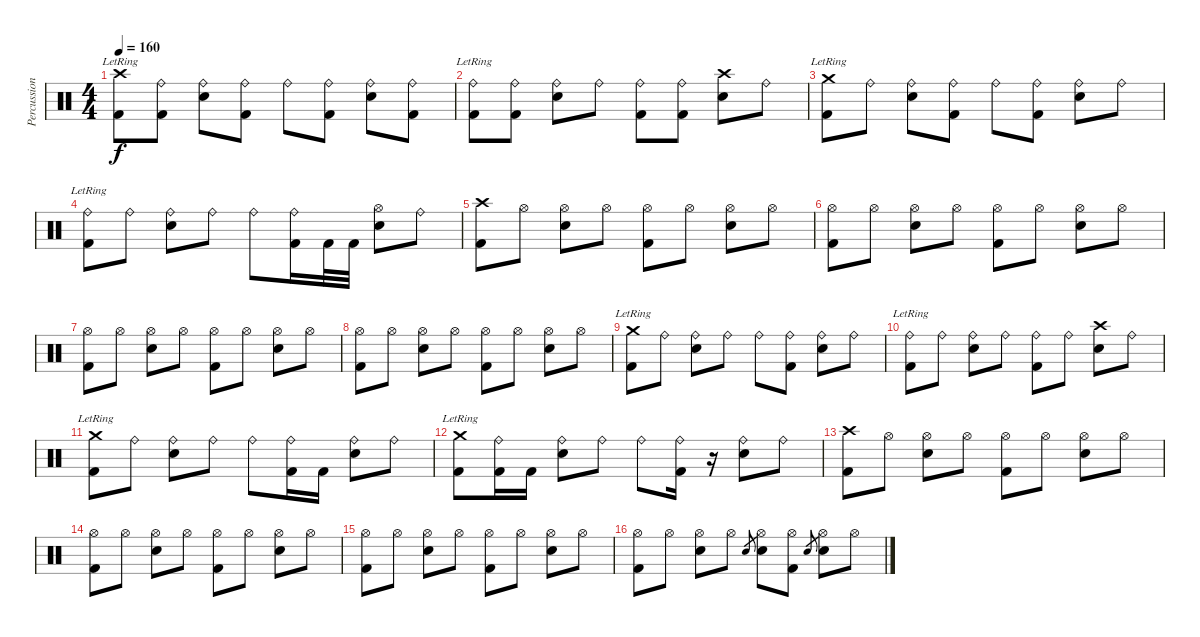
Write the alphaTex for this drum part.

\track ("Percussioni" "Percussion") {instrument percussion}
\staff {score}
\articulation defaults
\ts (4 4)
\tempo 160
\clef neutral
\ks c
("Crash high (hit)"{lr} "Kick (hit) 2").8{dy f} ("Ride (bell)" "Kick (hit) 2").8 ("Ride (bell)" "Electric Snare (hit)").8 ("Ride (bell)" "Kick (hit) 2").8 "Ride (bell)".8 ("Ride (bell)" "Kick (hit) 2").8 ("Ride (bell)" "Electric Snare (hit)").8 ("Ride (bell)" "Kick (hit) 2").8 |
("Ride (bell)"{lr} "Kick (hit) 2").8 ("Ride (bell)" "Kick (hit) 2").8 ("Ride (bell)" "Electric Snare (hit)").8 "Ride (bell)".8 ("Ride (bell)" "Kick (hit) 2").8 ("Ride (bell)" "Kick (hit) 2").8 ("Crash high (hit)" "Electric Snare (hit)").8 "Ride (bell)".8 |
("Crash medium (hit)"{lr} "Kick (hit) 2").8 "Ride (bell)".8 ("Ride (bell)" "Electric Snare (hit)").8 ("Ride (bell)" "Kick (hit) 2").8 "Ride (bell)".8 ("Ride (bell)" "Kick (hit) 2").8 ("Ride (bell)" "Electric Snare (hit)").8 "Ride (bell)".8 |
("Ride (bell)"{lr} "Kick (hit) 2").8 "Ride (bell)".8 ("Ride (bell)" "Electric Snare (hit)").8 "Ride (bell)".8 "Ride (bell)".8 ("Ride (bell)" "Kick (hit) 2").16 "Kick (hit) 2".32 "Kick (hit) 2".32 ("Hi-Hat (open)" "Electric Snare (hit)").8 "Ride (bell)".8 |
("Crash high (hit)" "Kick (hit) 2").8 "Hi-Hat (open)".8 ("Hi-Hat (open)" "Electric Snare (hit)").8 "Hi-Hat (open)".8 ("Hi-Hat (open)" "Kick (hit) 2").8 "Hi-Hat (open)".8 ("Hi-Hat (open)" "Electric Snare (hit)").8 "Hi-Hat (open)".8 |
("Hi-Hat (open)" "Kick (hit) 2").8 "Hi-Hat (open)".8 ("Hi-Hat (open)" "Electric Snare (hit)").8 "Hi-Hat (open)".8 ("Hi-Hat (open)" "Kick (hit) 2").8 "Hi-Hat (open)".8 ("Hi-Hat (open)" "Electric Snare (hit)").8 "Hi-Hat (open)".8 |
("Hi-Hat (open)" "Kick (hit) 2").8 "Hi-Hat (open)".8 ("Hi-Hat (open)" "Electric Snare (hit)").8 "Hi-Hat (open)".8 ("Hi-Hat (open)" "Kick (hit) 2").8 "Hi-Hat (open)".8 ("Hi-Hat (open)" "Electric Snare (hit)").8 "Hi-Hat (open)".8 |
("Hi-Hat (open)" "Kick (hit) 2").8 "Hi-Hat (open)".8 ("Hi-Hat (open)" "Electric Snare (hit)").8 "Hi-Hat (open)".8 ("Hi-Hat (open)" "Kick (hit) 2").8 "Hi-Hat (open)".8 ("Hi-Hat (open)" "Electric Snare (hit)").8 "Hi-Hat (open)".8 |
("Crash medium (hit)"{lr} "Kick (hit) 2").8 "Ride (bell)".8 ("Ride (bell)" "Electric Snare (hit)").8 "Ride (bell)".8 "Ride (bell)".8 ("Ride (bell)" "Kick (hit) 2").8 ("Ride (bell)" "Electric Snare (hit)").8 "Ride (bell)".8 |
("Ride (bell)"{lr} "Kick (hit) 2").8 "Ride (bell)".8 ("Ride (bell)" "Electric Snare (hit)").8 "Ride (bell)".8 ("Ride (bell)" "Kick (hit) 2").8 "Ride (bell)".8 ("Crash high (hit)" "Electric Snare (hit)").8 "Ride (bell)".8 |
("Crash medium (hit)"{lr} "Kick (hit) 2").8 "Ride (bell)".8 ("Ride (bell)" "Electric Snare (hit)").8 "Ride (bell)".8 "Ride (bell)".8 ("Ride (bell)" "Kick (hit) 2").16 "Kick (hit) 2".16 ("Ride (bell)" "Electric Snare (hit)").8 "Ride (bell)".8 |
("Crash medium (hit)"{lr} "Kick (hit) 2").8 ("Ride (bell)" "Kick (hit) 2").16 "Kick (hit) 2".16 ("Ride (bell)" "Electric Snare (hit)").8 "Ride (bell)".8 "Ride (bell)".8 ("Ride (bell)" "Kick (hit) 2").16 r.16 ("Ride (bell)" "Electric Snare (hit)").8 "Ride (bell)".8 |
("Crash high (hit)" "Kick (hit) 2").8 "Hi-Hat (open)".8 ("Hi-Hat (open)" "Electric Snare (hit)").8 "Hi-Hat (open)".8 ("Hi-Hat (open)" "Kick (hit) 2").8 "Hi-Hat (open)".8 ("Hi-Hat (open)" "Electric Snare (hit)").8 "Hi-Hat (open)".8 |
("Hi-Hat (open)" "Kick (hit) 2").8 "Hi-Hat (open)".8 ("Hi-Hat (open)" "Electric Snare (hit)").8 "Hi-Hat (open)".8 ("Hi-Hat (open)" "Kick (hit) 2").8 "Hi-Hat (open)".8 ("Hi-Hat (open)" "Electric Snare (hit)").8 "Hi-Hat (open)".8 |
("Hi-Hat (open)" "Kick (hit) 2").8 "Hi-Hat (open)".8 ("Hi-Hat (open)" "Electric Snare (hit)").8 "Hi-Hat (open)".8 ("Hi-Hat (open)" "Kick (hit) 2").8 "Hi-Hat (open)".8 ("Hi-Hat (open)" "Electric Snare (hit)").8 "Hi-Hat (open)".8 |
("Hi-Hat (open)" "Kick (hit) 2").8 "Hi-Hat (open)".8 ("Hi-Hat (open)" "Electric Snare (hit)").8 "Hi-Hat (open)".8 "Electric Snare (hit)".8{gr} ("Hi-Hat (open)" "Electric Snare (hit)").8 ("Hi-Hat (open)" "Kick (hit) 2").8 "Electric Snare (hit)".8{gr} ("Hi-Hat (open)" "Electric Snare (hit)").8 "Hi-Hat (open)".8
